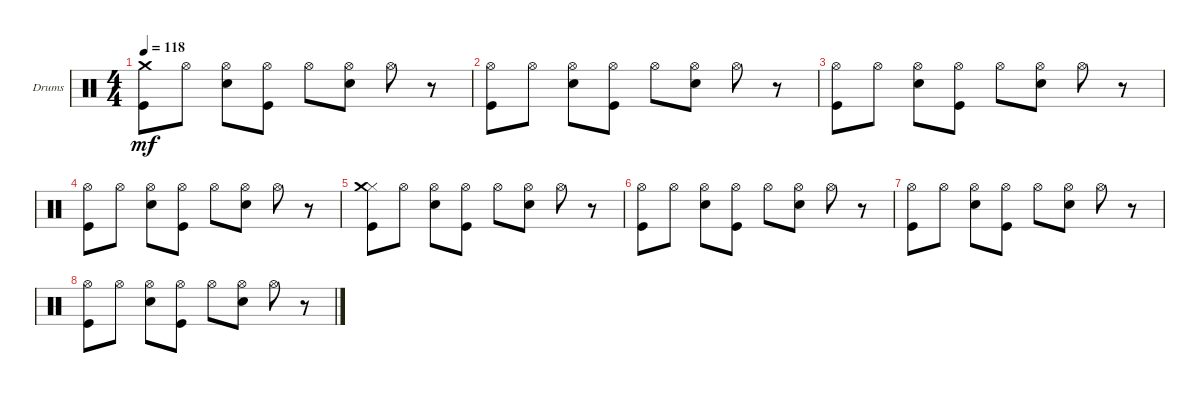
\defaultSystemsLayout 4
\bracketExtendMode groupsimilarinstruments
\firstSystemTrackNameOrientation horizontal
\otherSystemsTrackNameOrientation horizontal
\track ("Drumkit" "Drums") {instrument percussion}
\staff {score}
\articulation defaults
\ts (4 4)
\tempo 118
\clef neutral
\ks c
("Kick (hit)" "Crash medium (hit)").8{dy mf} "Hi-Hat (open)".8 ("Hi-Hat (open)" "Snare (hit) 2").8 ("Hi-Hat (open)" "Kick (hit)").8 "Hi-Hat (open)".8 ("Hi-Hat (open)" "Snare (hit) 2").8 "Hi-Hat (open)".8 r.8 |
("Hi-Hat (open)" "Kick (hit)").8 "Hi-Hat (open)".8 ("Hi-Hat (open)" "Snare (hit) 2").8 ("Hi-Hat (open)" "Kick (hit)").8 "Hi-Hat (open)".8 ("Hi-Hat (open)" "Snare (hit) 2").8 "Hi-Hat (open)".8 r.8 |
("Hi-Hat (open)" "Kick (hit)").8 "Hi-Hat (open)".8 ("Hi-Hat (open)" "Snare (hit) 2").8 ("Hi-Hat (open)" "Kick (hit)").8 "Hi-Hat (open)".8 ("Hi-Hat (open)" "Snare (hit) 2").8 "Hi-Hat (open)".8 r.8 |
("Hi-Hat (open)" "Kick (hit)").8 "Hi-Hat (open)".8 ("Hi-Hat (open)" "Snare (hit) 2").8 ("Hi-Hat (open)" "Kick (hit)").8 "Hi-Hat (open)".8 ("Hi-Hat (open)" "Snare (hit) 2").8 "Hi-Hat (open)".8 r.8 |
("Kick (hit)" "Hi-Hat (closed)" "Crash medium (hit)").8 "Hi-Hat (open)".8 ("Hi-Hat (open)" "Snare (hit) 2").8 ("Hi-Hat (open)" "Kick (hit)").8 "Hi-Hat (open)".8 ("Hi-Hat (open)" "Snare (hit) 2").8 "Hi-Hat (open)".8 r.8 |
("Hi-Hat (open)" "Kick (hit)").8 "Hi-Hat (open)".8 ("Hi-Hat (open)" "Snare (hit) 2").8 ("Hi-Hat (open)" "Kick (hit)").8 "Hi-Hat (open)".8 ("Hi-Hat (open)" "Snare (hit) 2").8 "Hi-Hat (open)".8 r.8 |
("Hi-Hat (open)" "Kick (hit)").8 "Hi-Hat (open)".8 ("Hi-Hat (open)" "Snare (hit) 2").8 ("Hi-Hat (open)" "Kick (hit)").8 "Hi-Hat (open)".8 ("Hi-Hat (open)" "Snare (hit) 2").8 "Hi-Hat (open)".8 r.8 |
("Hi-Hat (open)" "Kick (hit)").8 "Hi-Hat (open)".8 ("Hi-Hat (open)" "Snare (hit) 2").8 ("Hi-Hat (open)" "Kick (hit)").8 "Hi-Hat (open)".8 ("Hi-Hat (open)" "Snare (hit) 2").8 "Hi-Hat (open)".8 r.8
